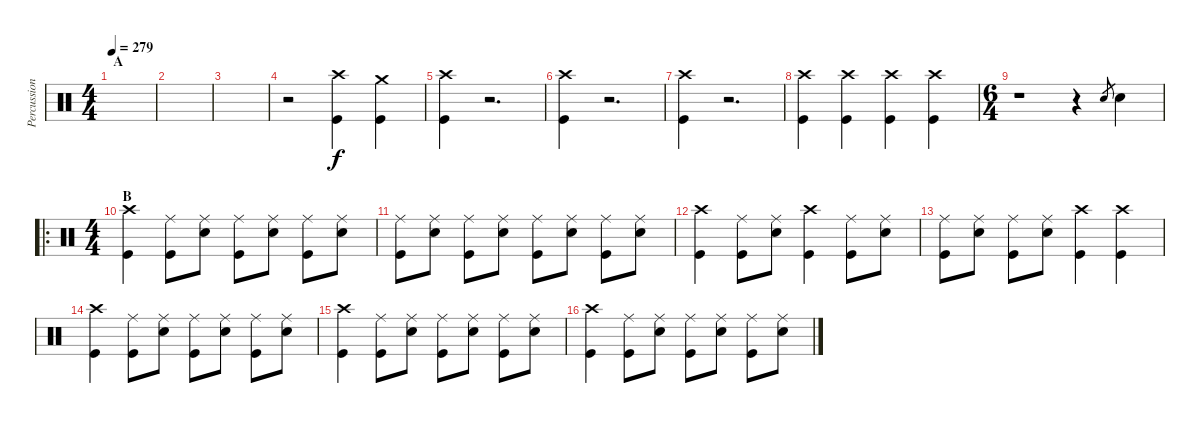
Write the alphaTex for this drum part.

\track ("Percussion" "Percussion") {instrument percussion}
\staff {score}
\articulation defaults
\ts (4 4)
\section ("" "A")
\tempo 279
\clef neutral
\ks c
|
|
|
r.2 ("Crash high (hit)" "Kick (hit)").4 ("Crash medium (hit)" "Kick (hit)").4 |
("Crash high (hit)" "Kick (hit)").4 r.2{d} |
("Crash high (hit)" "Kick (hit)").4 r.2{d} |
("Crash high (hit)" "Kick (hit)").4 r.2{d} |
("Crash high (hit)" "Kick (hit)").4 ("Crash high (hit)" "Kick (hit)").4 ("Crash high (hit)" "Kick (hit)").4 ("Crash high (hit)" "Kick (hit)").4 |
\ts (6 4)
r.1 r.4 "Snare (hit) 2".8{gr} "Snare (hit) 2".4 |
\ro
\ts (4 4)
\section ("" "B")
("Crash high (hit)" "Kick (hit)").4 ("Ride (middle)" "Kick (hit)").8 ("Ride (middle)" "Snare (hit) 2").8 ("Ride (middle)" "Kick (hit)").8 ("Ride (middle)" "Snare (hit) 2").8 ("Ride (middle)" "Kick (hit)").8 ("Ride (middle)" "Snare (hit) 2").8 |
("Ride (middle)" "Kick (hit)").8 ("Ride (middle)" "Snare (hit) 2").8 ("Ride (middle)" "Kick (hit)").8 ("Ride (middle)" "Snare (hit) 2").8 ("Ride (middle)" "Kick (hit)").8 ("Ride (middle)" "Snare (hit) 2").8 ("Ride (middle)" "Kick (hit)").8 ("Ride (middle)" "Snare (hit) 2").8 |
("Crash high (hit)" "Kick (hit)").4 ("Ride (middle)" "Kick (hit)").8 ("Ride (middle)" "Snare (hit) 2").8 ("Crash high (hit)" "Kick (hit)").4 ("Ride (middle)" "Kick (hit)").8 ("Ride (middle)" "Snare (hit) 2").8 |
("Ride (middle)" "Kick (hit)").8 ("Ride (middle)" "Snare (hit) 2").8 ("Ride (middle)" "Kick (hit)").8 ("Ride (middle)" "Snare (hit) 2").8 ("Crash high (hit)" "Kick (hit)").4 ("Crash high (hit)" "Kick (hit)").4 |
("Crash high (hit)" "Kick (hit)").4 ("Ride (middle)" "Kick (hit)").8 ("Ride (middle)" "Snare (hit) 2").8 ("Ride (middle)" "Kick (hit)").8 ("Ride (middle)" "Snare (hit) 2").8 ("Ride (middle)" "Kick (hit)").8 ("Ride (middle)" "Snare (hit) 2").8 |
("Crash high (hit)" "Kick (hit)").4 ("Ride (middle)" "Kick (hit)").8 ("Ride (middle)" "Snare (hit) 2").8 ("Ride (middle)" "Kick (hit)").8 ("Ride (middle)" "Snare (hit) 2").8 ("Ride (middle)" "Kick (hit)").8 ("Ride (middle)" "Snare (hit) 2").8 |
("Crash high (hit)" "Kick (hit)").4 ("Ride (middle)" "Kick (hit)").8 ("Ride (middle)" "Snare (hit) 2").8 ("Ride (middle)" "Kick (hit)").8 ("Ride (middle)" "Snare (hit) 2").8 ("Ride (middle)" "Kick (hit)").8 ("Ride (middle)" "Snare (hit) 2").8
